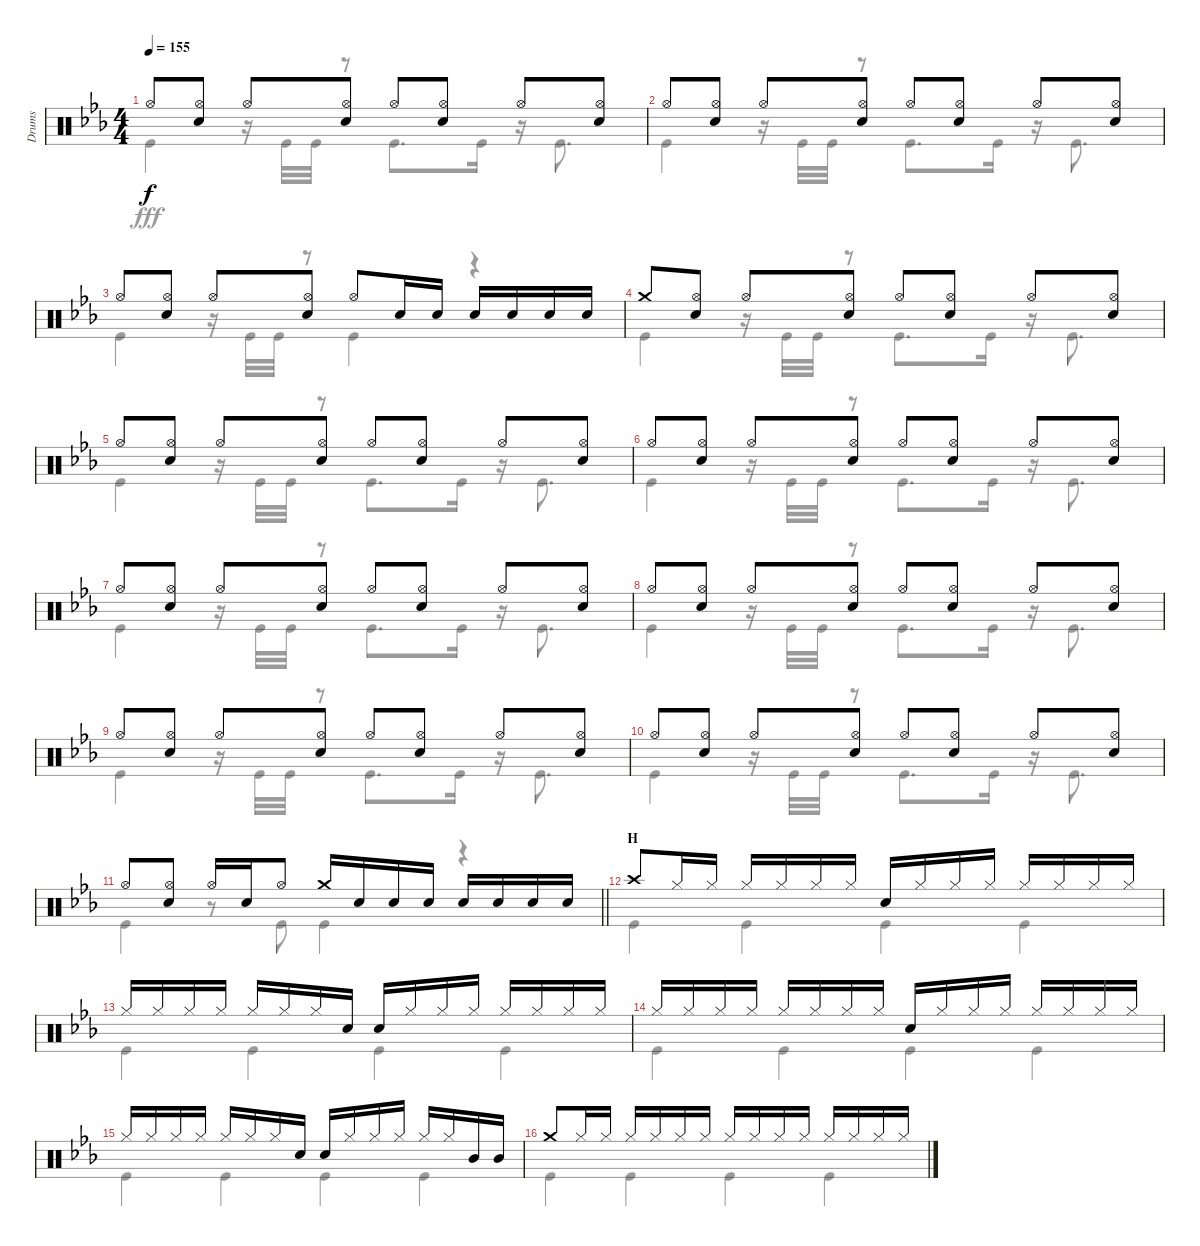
\track ("Drums" "Drums") {instrument percussion}
\staff {score}
\articulation defaults
\voice
\ts (4 4)
\tempo 155
\clef neutral
\ks eb "Hi-Hat (open)".8{dy f}
("Hi-Hat (open)" "Snare (hit) 2").8 "Hi-Hat (open)".8 ("Hi-Hat (open)" "Snare (hit) 2").8 "Hi-Hat (open)".8 ("Hi-Hat (open)" "Snare (hit) 2").8 "Hi-Hat (open)".8 ("Hi-Hat (open)" "Snare (hit) 2").8 |
"Hi-Hat (open)".8 ("Hi-Hat (open)" "Snare (hit) 2").8 "Hi-Hat (open)".8 ("Hi-Hat (open)" "Snare (hit) 2").8 "Hi-Hat (open)".8 ("Hi-Hat (open)" "Snare (hit) 2").8 "Hi-Hat (open)".8 ("Hi-Hat (open)" "Snare (hit) 2").8 |
"Hi-Hat (open)".8 ("Hi-Hat (open)" "Snare (hit) 2").8 "Hi-Hat (open)".8 ("Hi-Hat (open)" "Snare (hit) 2").8 "Hi-Hat (open)".8 "Snare (hit) 2".16 "Snare (hit) 2".16 "Snare (hit) 2".16 "Snare (hit) 2".16 "Snare (hit) 2".16 "Snare (hit) 2".16 |
"Crash medium (hit)".8 ("Hi-Hat (open)" "Snare (hit) 2").8 "Hi-Hat (open)".8 ("Hi-Hat (open)" "Snare (hit) 2").8 "Hi-Hat (open)".8 ("Hi-Hat (open)" "Snare (hit) 2").8 "Hi-Hat (open)".8 ("Hi-Hat (open)" "Snare (hit) 2").8 |
"Hi-Hat (open)".8 ("Hi-Hat (open)" "Snare (hit) 2").8 "Hi-Hat (open)".8 ("Hi-Hat (open)" "Snare (hit) 2").8 "Hi-Hat (open)".8 ("Hi-Hat (open)" "Snare (hit) 2").8 "Hi-Hat (open)".8 ("Hi-Hat (open)" "Snare (hit) 2").8 |
"Hi-Hat (open)".8 ("Hi-Hat (open)" "Snare (hit) 2").8 "Hi-Hat (open)".8 ("Hi-Hat (open)" "Snare (hit) 2").8 "Hi-Hat (open)".8 ("Hi-Hat (open)" "Snare (hit) 2").8 "Hi-Hat (open)".8 ("Hi-Hat (open)" "Snare (hit) 2").8 |
"Hi-Hat (open)".8 ("Hi-Hat (open)" "Snare (hit) 2").8 "Hi-Hat (open)".8 ("Hi-Hat (open)" "Snare (hit) 2").8 "Hi-Hat (open)".8 ("Hi-Hat (open)" "Snare (hit) 2").8 "Hi-Hat (open)".8 ("Hi-Hat (open)" "Snare (hit) 2").8 |
"Hi-Hat (open)".8 ("Hi-Hat (open)" "Snare (hit) 2").8 "Hi-Hat (open)".8 ("Hi-Hat (open)" "Snare (hit) 2").8 "Hi-Hat (open)".8 ("Hi-Hat (open)" "Snare (hit) 2").8 "Hi-Hat (open)".8 ("Hi-Hat (open)" "Snare (hit) 2").8 |
"Hi-Hat (open)".8 ("Hi-Hat (open)" "Snare (hit) 2").8 "Hi-Hat (open)".8 ("Hi-Hat (open)" "Snare (hit) 2").8 "Hi-Hat (open)".8 ("Hi-Hat (open)" "Snare (hit) 2").8 "Hi-Hat (open)".8 ("Hi-Hat (open)" "Snare (hit) 2").8 |
"Hi-Hat (open)".8 ("Hi-Hat (open)" "Snare (hit) 2").8 "Hi-Hat (open)".8 ("Hi-Hat (open)" "Snare (hit) 2").8 "Hi-Hat (open)".8 ("Hi-Hat (open)" "Snare (hit) 2").8 "Hi-Hat (open)".8 ("Hi-Hat (open)" "Snare (hit) 2").8 |
\barLineRight lightlight "Hi-Hat (open)".8
("Hi-Hat (open)" "Snare (hit) 2").8 "Hi-Hat (open)".16 "Snare (hit) 2".16 "Hi-Hat (open)".8 "Crash medium (hit)".16 "Snare (hit) 2".16 "Snare (hit) 2".16 "Snare (hit) 2".16 "Snare (hit) 2".16 "Snare (hit) 2".16 "Snare (hit) 2".16 "Snare (hit) 2".16 |
\section ("" "H")
"Crash high (hit)".8 "Hi-Hat (closed)".16 "Hi-Hat (closed)".16 "Hi-Hat (closed)".16 "Hi-Hat (closed)".16 "Hi-Hat (closed)".16 "Hi-Hat (closed)".16 "Snare (hit) 2".16 "Hi-Hat (closed)".16 "Hi-Hat (closed)".16 "Hi-Hat (closed)".16 "Hi-Hat (closed)".16 "Hi-Hat (closed)".16 "Hi-Hat (closed)".16 "Hi-Hat (closed)".16 |
"Hi-Hat (closed)".16 "Hi-Hat (closed)".16 "Hi-Hat (closed)".16 "Hi-Hat (closed)".16 "Hi-Hat (closed)".16 "Hi-Hat (closed)".16 "Hi-Hat (closed)".16 "Snare (hit) 2".16 "Snare (hit) 2".16 "Hi-Hat (closed)".16 "Hi-Hat (closed)".16 "Hi-Hat (closed)".16 "Hi-Hat (closed)".16 "Hi-Hat (closed)".16 "Hi-Hat (closed)".16 "Hi-Hat (closed)".16 |
"Hi-Hat (closed)".16 "Hi-Hat (closed)".16 "Hi-Hat (closed)".16 "Hi-Hat (closed)".16 "Hi-Hat (closed)".16 "Hi-Hat (closed)".16 "Hi-Hat (closed)".16 "Hi-Hat (closed)".16 "Snare (hit) 2".16 "Hi-Hat (closed)".16 "Hi-Hat (closed)".16 "Hi-Hat (closed)".16 "Hi-Hat (closed)".16 "Hi-Hat (closed)".16 "Hi-Hat (closed)".16 "Hi-Hat (closed)".16 |
"Hi-Hat (closed)".16 "Hi-Hat (closed)".16 "Hi-Hat (closed)".16 "Hi-Hat (closed)".16 "Hi-Hat (closed)".16 "Hi-Hat (closed)".16 "Hi-Hat (closed)".16 "Snare (hit) 2".16 "Snare (hit) 2".16 "Hi-Hat (closed)".16 "Hi-Hat (closed)".16 "Hi-Hat (closed)".16 "Hi-Hat (closed)".16 "Hi-Hat (closed)".16 "Mid Tom (hit)".16 "Mid Tom (hit)".16 |
"Crash medium (hit)".8 "Hi-Hat (closed)".16 "Hi-Hat (closed)".16 "Hi-Hat (closed)".16 "Hi-Hat (closed)".16 "Hi-Hat (closed)".16 "Hi-Hat (closed)".16 "Hi-Hat (closed)".16 "Hi-Hat (closed)".16 "Hi-Hat (closed)".16 "Hi-Hat (closed)".16 "Hi-Hat (closed)".16 "Hi-Hat (closed)".16 "Hi-Hat (closed)".16 "Hi-Hat (closed)".16
\voice
\clef neutral
\ottava regular
\simile none
\ks eb "Kick (hit)".4{dy fff}
r.16 "Kick (hit)".32 "Kick (hit)".32 r.8 "Kick (hit)".8{d} "Kick (hit)".16 r.16 "Kick (hit)".8{d} |
"Kick (hit)".4 r.16 "Kick (hit)".32 "Kick (hit)".32 r.8 "Kick (hit)".8{d} "Kick (hit)".16 r.16 "Kick (hit)".8{d} |
"Kick (hit)".4 r.16 "Kick (hit)".32 "Kick (hit)".32 r.8 "Kick (hit)".4 r.4 |
"Kick (hit)".4 r.16 "Kick (hit)".32 "Kick (hit)".32 r.8 "Kick (hit)".8{d} "Kick (hit)".16 r.16 "Kick (hit)".8{d} |
"Kick (hit)".4 r.16 "Kick (hit)".32 "Kick (hit)".32 r.8 "Kick (hit)".8{d} "Kick (hit)".16 r.16 "Kick (hit)".8{d} |
"Kick (hit)".4 r.16 "Kick (hit)".32 "Kick (hit)".32 r.8 "Kick (hit)".8{d} "Kick (hit)".16 r.16 "Kick (hit)".8{d} |
"Kick (hit)".4 r.16 "Kick (hit)".32 "Kick (hit)".32 r.8 "Kick (hit)".8{d} "Kick (hit)".16 r.16 "Kick (hit)".8{d} |
"Kick (hit)".4 r.16 "Kick (hit)".32 "Kick (hit)".32 r.8 "Kick (hit)".8{d} "Kick (hit)".16 r.16 "Kick (hit)".8{d} |
"Kick (hit)".4 r.16 "Kick (hit)".32 "Kick (hit)".32 r.8 "Kick (hit)".8{d} "Kick (hit)".16 r.16 "Kick (hit)".8{d} |
"Kick (hit)".4 r.16 "Kick (hit)".32 "Kick (hit)".32 r.8 "Kick (hit)".8{d} "Kick (hit)".16 r.16 "Kick (hit)".8{d} |
\barLineRight lightlight "Kick (hit)".4
r.8 "Kick (hit)".8 "Kick (hit)".4 r.4 |
"Kick (hit)".4 "Kick (hit)".4 "Kick (hit)".4 "Kick (hit)".4 |
"Kick (hit)".4 "Kick (hit)".4 "Kick (hit)".4 "Kick (hit)".4 |
"Kick (hit)".4 "Kick (hit)".4 "Kick (hit)".4 "Kick (hit)".4 |
"Kick (hit)".4 "Kick (hit)".4 "Kick (hit)".4 "Kick (hit)".4 |
"Kick (hit)".4 "Kick (hit)".4 "Kick (hit)".4 "Kick (hit)".4
